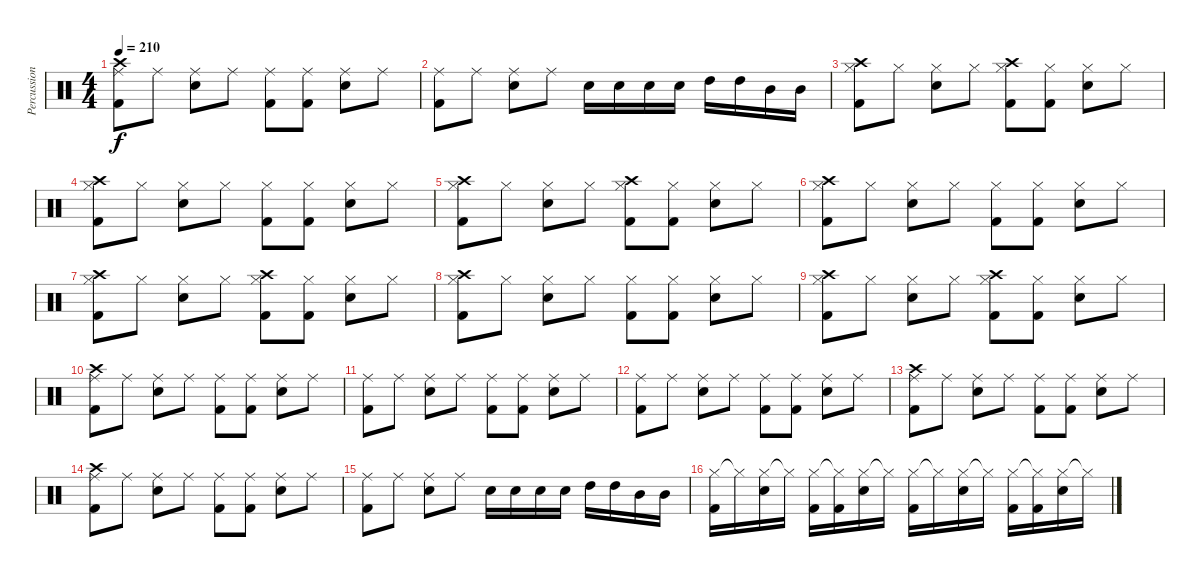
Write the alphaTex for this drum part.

\track ("Percussion" "Percussion") {instrument percussion}
\staff {score}
\articulation defaults
\ts (4 4)
\tempo 210
\clef neutral
\ks c
("Ride (middle)" "Crash high (hit)" "Kick (hit) 2").8{dy f} "Ride (middle)".8 ("Ride (middle)" "Snare (hit) 2").8 "Ride (middle)".8 ("Ride (middle)" "Kick (hit) 2").8 ("Ride (middle)" "Kick (hit) 2").8 ("Ride (middle)" "Snare (hit) 2").8 "Ride (middle)".8 |
("Ride (middle)" "Kick (hit) 2").8 "Ride (middle)".8 ("Ride (middle)" "Snare (hit) 2").8 "Ride (middle)".8 "Snare (hit) 2".16 "Snare (hit) 2".16 "Snare (hit) 2".16 "Snare (hit) 2".16 "High Tom (hit)".16 "High Tom (hit)".16 "Mid Tom (hit)".16 "Mid Tom (hit)".16 |
("Hi-Hat (closed)" "Crash high (hit)" "Kick (hit) 2").8 "Hi-Hat (closed)".8 ("Hi-Hat (closed)" "Snare (hit) 2").8 "Hi-Hat (closed)".8 ("Hi-Hat (closed)" "Crash high (hit)" "Kick (hit) 2").8 ("Hi-Hat (closed)" "Kick (hit) 2").8 ("Hi-Hat (closed)" "Snare (hit) 2").8 "Hi-Hat (closed)".8 |
("Hi-Hat (closed)" "Crash high (hit)" "Kick (hit) 2").8 "Hi-Hat (closed)".8 ("Hi-Hat (closed)" "Snare (hit) 2").8 "Hi-Hat (closed)".8 ("Hi-Hat (closed)" "Kick (hit) 2").8 ("Hi-Hat (closed)" "Kick (hit) 2").8 ("Hi-Hat (closed)" "Snare (hit) 2").8 "Hi-Hat (closed)".8 |
("Hi-Hat (closed)" "Crash high (hit)" "Kick (hit) 2").8 "Hi-Hat (closed)".8 ("Hi-Hat (closed)" "Snare (hit) 2").8 "Hi-Hat (closed)".8 ("Hi-Hat (closed)" "Crash high (hit)" "Kick (hit) 2").8 ("Hi-Hat (closed)" "Kick (hit) 2").8 ("Hi-Hat (closed)" "Snare (hit) 2").8 "Hi-Hat (closed)".8 |
("Hi-Hat (closed)" "Crash high (hit)" "Kick (hit) 2").8 "Hi-Hat (closed)".8 ("Hi-Hat (closed)" "Snare (hit) 2").8 "Hi-Hat (closed)".8 ("Hi-Hat (closed)" "Kick (hit) 2").8 ("Hi-Hat (closed)" "Kick (hit) 2").8 ("Hi-Hat (closed)" "Snare (hit) 2").8 "Hi-Hat (closed)".8 |
("Hi-Hat (closed)" "Crash high (hit)" "Kick (hit) 2").8 "Hi-Hat (closed)".8 ("Hi-Hat (closed)" "Snare (hit) 2").8 "Hi-Hat (closed)".8 ("Hi-Hat (closed)" "Crash high (hit)" "Kick (hit) 2").8 ("Hi-Hat (closed)" "Kick (hit) 2").8 ("Hi-Hat (closed)" "Snare (hit) 2").8 "Hi-Hat (closed)".8 |
("Hi-Hat (closed)" "Crash high (hit)" "Kick (hit) 2").8 "Hi-Hat (closed)".8 ("Hi-Hat (closed)" "Snare (hit) 2").8 "Hi-Hat (closed)".8 ("Hi-Hat (closed)" "Kick (hit) 2").8 ("Hi-Hat (closed)" "Kick (hit) 2").8 ("Hi-Hat (closed)" "Snare (hit) 2").8 "Hi-Hat (closed)".8 |
("Hi-Hat (closed)" "Crash high (hit)" "Kick (hit) 2").8 "Hi-Hat (closed)".8 ("Hi-Hat (closed)" "Snare (hit) 2").8 "Hi-Hat (closed)".8 ("Hi-Hat (closed)" "Crash high (hit)" "Kick (hit) 2").8 ("Hi-Hat (closed)" "Kick (hit) 2").8 ("Hi-Hat (closed)" "Snare (hit) 2").8 "Hi-Hat (closed)".8 |
("Ride (middle)" "Crash high (hit)" "Kick (hit) 2").8 "Ride (middle)".8 ("Ride (middle)" "Snare (hit) 2").8 "Ride (middle)".8 ("Ride (middle)" "Kick (hit) 2").8 ("Ride (middle)" "Kick (hit) 2").8 ("Ride (middle)" "Snare (hit) 2").8 "Ride (middle)".8 |
("Ride (middle)" "Kick (hit) 2").8 "Ride (middle)".8 ("Ride (middle)" "Snare (hit) 2").8 "Ride (middle)".8 ("Ride (middle)" "Kick (hit) 2").8 ("Ride (middle)" "Kick (hit) 2").8 ("Ride (middle)" "Snare (hit) 2").8 "Ride (middle)".8 |
("Ride (middle)" "Kick (hit) 2").8 "Ride (middle)".8 ("Ride (middle)" "Snare (hit) 2").8 "Ride (middle)".8 ("Ride (middle)" "Kick (hit) 2").8 ("Ride (middle)" "Kick (hit) 2").8 ("Ride (middle)" "Snare (hit) 2").8 "Ride (middle)".8 |
("Ride (middle)" "Crash high (hit)" "Kick (hit) 2").8 "Ride (middle)".8 ("Ride (middle)" "Snare (hit) 2").8 "Ride (middle)".8 ("Ride (middle)" "Kick (hit) 2").8 ("Ride (middle)" "Kick (hit) 2").8 ("Ride (middle)" "Snare (hit) 2").8 "Ride (middle)".8 |
("Ride (middle)" "Crash high (hit)" "Kick (hit) 2").8 "Ride (middle)".8 ("Ride (middle)" "Snare (hit) 2").8 "Ride (middle)".8 ("Ride (middle)" "Kick (hit) 2").8 ("Ride (middle)" "Kick (hit) 2").8 ("Ride (middle)" "Snare (hit) 2").8 "Ride (middle)".8 |
("Ride (middle)" "Kick (hit) 2").8 "Ride (middle)".8 ("Ride (middle)" "Snare (hit) 2").8 "Ride (middle)".8 "Snare (hit) 2".16 "Snare (hit) 2".16 "Snare (hit) 2".16 "Snare (hit) 2".16 "High Tom (hit)".16 "High Tom (hit)".16 "Mid Tom (hit)".16 "Mid Tom (hit)".16 |
("Hi-Hat (closed)" "Kick (hit) 2").16 "Hi-Hat (closed)"{t}.16 ("Hi-Hat (closed)" "Snare (hit) 2").16 "Hi-Hat (closed)"{t}.16 ("Hi-Hat (closed)" "Kick (hit) 2").16 ("Hi-Hat (closed)"{t} "Kick (hit) 2").16 ("Hi-Hat (closed)" "Snare (hit) 2").16 "Hi-Hat (closed)"{t}.16 ("Hi-Hat (closed)" "Kick (hit) 2").16 "Hi-Hat (closed)"{t}.16 ("Hi-Hat (closed)" "Snare (hit) 2").16 "Hi-Hat (closed)"{t}.16 ("Hi-Hat (closed)" "Kick (hit) 2").16 ("Hi-Hat (closed)"{t} "Kick (hit) 2").16 ("Hi-Hat (closed)" "Snare (hit) 2").16 "Hi-Hat (closed)"{t}.16
